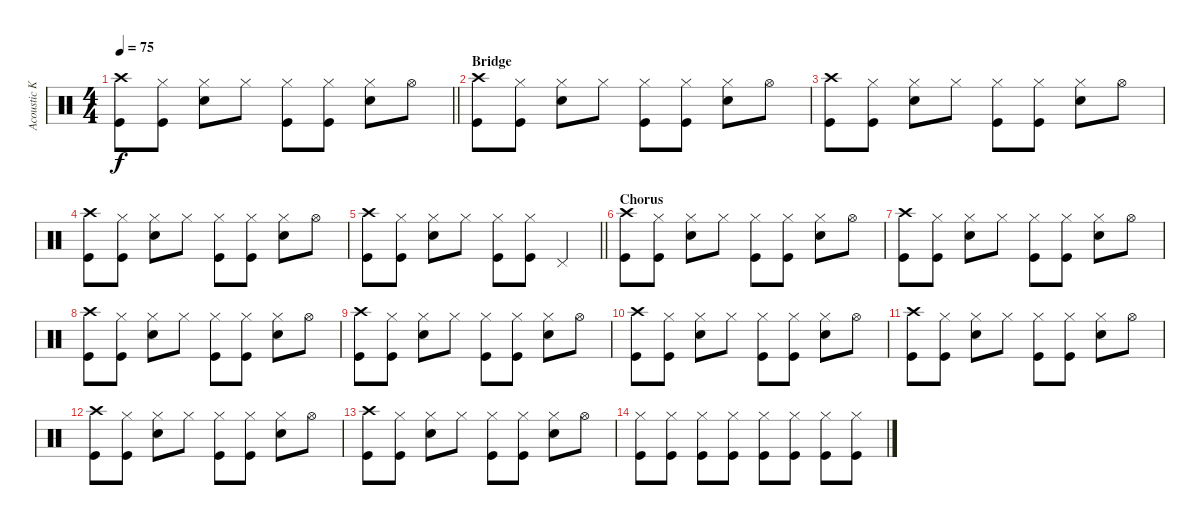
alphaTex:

\track ("Acoustic Kit" "Acoustic K") {instrument percussion}
\staff {score}
\articulation defaults
\ts (4 4)
\tempo 75
\clef neutral
\barLineRight lightlight
\ks c
("Crash high (hit)" "Kick (hit)").8{dy f} ("Hi-Hat (closed)" "Kick (hit)").8 ("Hi-Hat (closed)" "Snare (hit) 2").8 "Hi-Hat (closed)".8 ("Hi-Hat (closed)" "Kick (hit)").8 ("Hi-Hat (closed)" "Kick (hit)").8 ("Hi-Hat (closed)" "Snare (hit) 2").8 "Hi-Hat (open)".8 |
\section ("" "Bridge")
("Crash high (hit)" "Kick (hit)").8 ("Hi-Hat (closed)" "Kick (hit)").8 ("Hi-Hat (closed)" "Snare (hit) 2").8 "Hi-Hat (closed)".8 ("Hi-Hat (closed)" "Kick (hit)").8 ("Hi-Hat (closed)" "Kick (hit)").8 ("Hi-Hat (closed)" "Snare (hit) 2").8 "Hi-Hat (open)".8 |
("Crash high (hit)" "Kick (hit)").8 ("Hi-Hat (closed)" "Kick (hit)").8 ("Hi-Hat (closed)" "Snare (hit) 2").8 "Hi-Hat (closed)".8 ("Hi-Hat (closed)" "Kick (hit)").8 ("Hi-Hat (closed)" "Kick (hit)").8 ("Hi-Hat (closed)" "Snare (hit) 2").8 "Hi-Hat (open)".8 |
("Crash high (hit)" "Kick (hit)").8 ("Hi-Hat (closed)" "Kick (hit)").8 ("Hi-Hat (closed)" "Snare (hit) 2").8 "Hi-Hat (closed)".8 ("Hi-Hat (closed)" "Kick (hit)").8 ("Hi-Hat (closed)" "Kick (hit)").8 ("Hi-Hat (closed)" "Snare (hit) 2").8 "Hi-Hat (open)".8 |
\barLineRight lightlight
("Crash high (hit)" "Kick (hit)").8 ("Hi-Hat (closed)" "Kick (hit)").8 ("Hi-Hat (closed)" "Snare (hit) 2").8 "Hi-Hat (closed)".8 ("Hi-Hat (closed)" "Kick (hit)").8 ("Hi-Hat (closed)" "Kick (hit)").8 "Pedal Hi-Hat (hit)".4 |
\section ("" "Chorus")
("Crash high (hit)" "Kick (hit)").8 ("Hi-Hat (closed)" "Kick (hit)").8 ("Hi-Hat (closed)" "Snare (hit) 2").8 "Hi-Hat (closed)".8 ("Hi-Hat (closed)" "Kick (hit)").8 ("Hi-Hat (closed)" "Kick (hit)").8 ("Hi-Hat (closed)" "Snare (hit) 2").8 "Hi-Hat (open)".8 |
("Crash high (hit)" "Kick (hit)").8 ("Hi-Hat (closed)" "Kick (hit)").8 ("Hi-Hat (closed)" "Snare (hit) 2").8 "Hi-Hat (closed)".8 ("Hi-Hat (closed)" "Kick (hit)").8 ("Hi-Hat (closed)" "Kick (hit)").8 ("Hi-Hat (closed)" "Snare (hit) 2").8 "Hi-Hat (open)".8 |
("Crash high (hit)" "Kick (hit)").8 ("Hi-Hat (closed)" "Kick (hit)").8 ("Hi-Hat (closed)" "Snare (hit) 2").8 "Hi-Hat (closed)".8 ("Hi-Hat (closed)" "Kick (hit)").8 ("Hi-Hat (closed)" "Kick (hit)").8 ("Hi-Hat (closed)" "Snare (hit) 2").8 "Hi-Hat (open)".8 |
("Crash high (hit)" "Kick (hit)").8 ("Hi-Hat (closed)" "Kick (hit)").8 ("Hi-Hat (closed)" "Snare (hit) 2").8 "Hi-Hat (closed)".8 ("Hi-Hat (closed)" "Kick (hit)").8 ("Hi-Hat (closed)" "Kick (hit)").8 ("Hi-Hat (closed)" "Snare (hit) 2").8 "Hi-Hat (open)".8 |
("Crash high (hit)" "Kick (hit)").8 ("Hi-Hat (closed)" "Kick (hit)").8 ("Hi-Hat (closed)" "Snare (hit) 2").8 "Hi-Hat (closed)".8 ("Hi-Hat (closed)" "Kick (hit)").8 ("Hi-Hat (closed)" "Kick (hit)").8 ("Hi-Hat (closed)" "Snare (hit) 2").8 "Hi-Hat (open)".8 |
("Crash high (hit)" "Kick (hit)").8 ("Hi-Hat (closed)" "Kick (hit)").8 ("Hi-Hat (closed)" "Snare (hit) 2").8 "Hi-Hat (closed)".8 ("Hi-Hat (closed)" "Kick (hit)").8 ("Hi-Hat (closed)" "Kick (hit)").8 ("Hi-Hat (closed)" "Snare (hit) 2").8 "Hi-Hat (open)".8 |
("Crash high (hit)" "Kick (hit)").8 ("Hi-Hat (closed)" "Kick (hit)").8 ("Hi-Hat (closed)" "Snare (hit) 2").8 "Hi-Hat (closed)".8 ("Hi-Hat (closed)" "Kick (hit)").8 ("Hi-Hat (closed)" "Kick (hit)").8 ("Hi-Hat (closed)" "Snare (hit) 2").8 "Hi-Hat (open)".8 |
("Crash high (hit)" "Kick (hit)").8 ("Hi-Hat (closed)" "Kick (hit)").8 ("Hi-Hat (closed)" "Snare (hit) 2").8 "Hi-Hat (closed)".8 ("Hi-Hat (closed)" "Kick (hit)").8 ("Hi-Hat (closed)" "Kick (hit)").8 ("Hi-Hat (closed)" "Snare (hit) 2").8 "Hi-Hat (open)".8 |
("Hi-Hat (closed)" "Kick (hit)").8 ("Hi-Hat (closed)" "Kick (hit)").8 ("Hi-Hat (closed)" "Kick (hit)").8 ("Hi-Hat (closed)" "Kick (hit)").8 ("Hi-Hat (closed)" "Kick (hit)").8 ("Hi-Hat (closed)" "Kick (hit)").8 ("Hi-Hat (closed)" "Kick (hit)").8 ("Hi-Hat (closed)" "Kick (hit)").8
